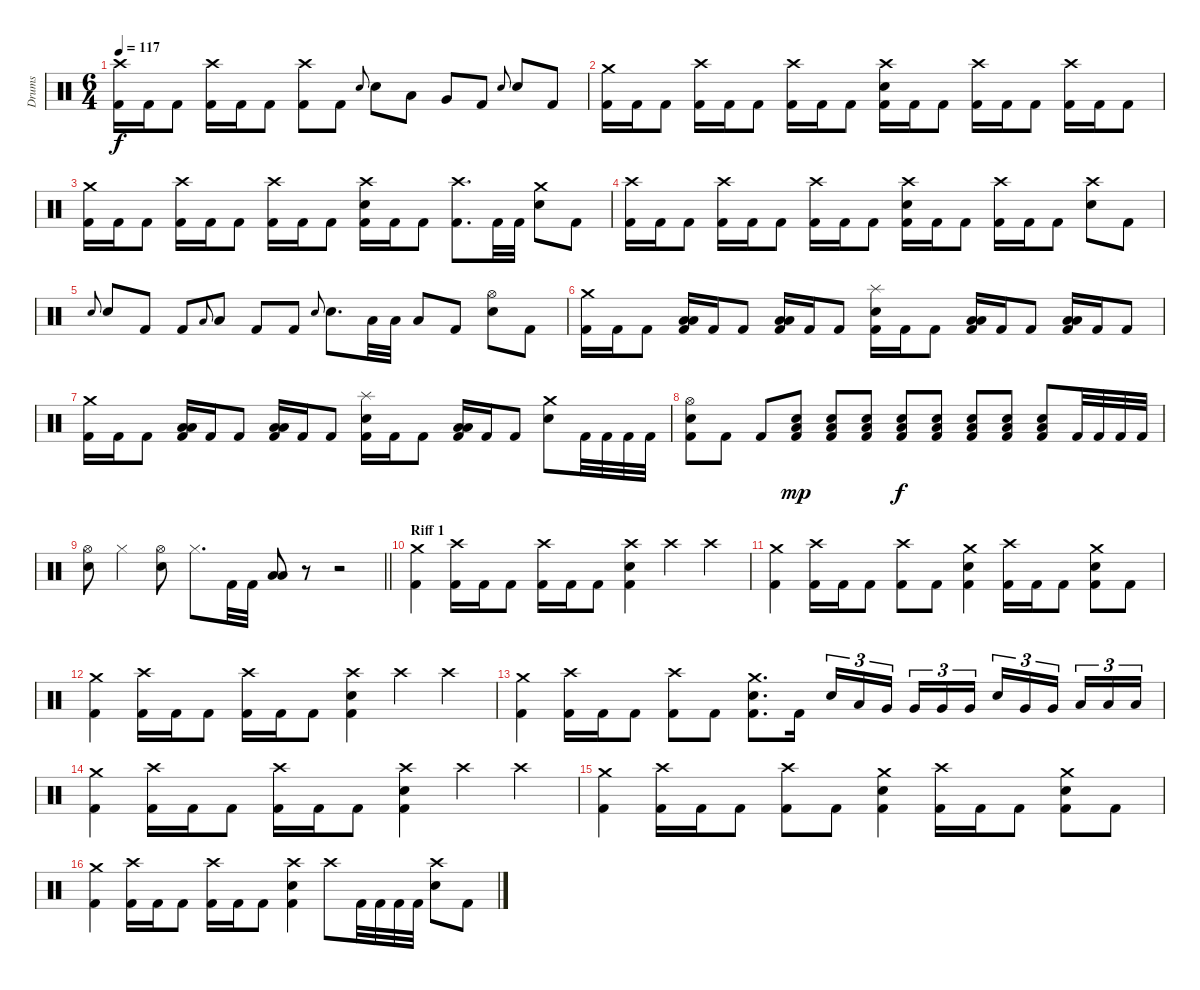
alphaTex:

\track ("Drums" "Drums") {instrument percussion}
\staff {score}
\articulation defaults
\ts (6 4)
\tempo 117
\clef neutral
\ks c
("Crash high (hit)" "Kick (hit) 2").16{dy f} "Kick (hit) 2".16 "Kick (hit) 2".8 ("Crash high (hit)" "Kick (hit) 2").16 "Kick (hit) 2".16 "Kick (hit) 2".8 ("Crash high (hit)" "Kick (hit) 2").8 "Kick (hit) 2".8 "Electric Snare (hit)".8{gr onbeat} "Electric Snare (hit)".8 "Low Tom (hit)".8 "Very Low Tom (hit)".8 "Kick (hit) 2".8 "Electric Snare (hit)".8{gr onbeat} "Electric Snare (hit)".8 "Kick (hit) 2".8 |
("Crash medium (hit)" "Kick (hit) 2").16 "Kick (hit) 2".16 "Kick (hit) 2".8 ("Crash high (hit)" "Kick (hit) 2").16 "Kick (hit) 2".16 "Kick (hit) 2".8 ("Crash high (hit)" "Kick (hit) 2").16 "Kick (hit) 2".16 "Kick (hit) 2".8 ("Electric Snare (hit)" "Kick (hit) 2" "Crash high (hit)").16 "Kick (hit) 2".16 "Kick (hit) 2".8 ("Crash high (hit)" "Kick (hit) 2").16 "Kick (hit) 2".16 "Kick (hit) 2".8 ("Crash high (hit)" "Kick (hit) 2").16 "Kick (hit) 2".16 "Kick (hit) 2".8 |
("Crash medium (hit)" "Kick (hit) 2").16 "Kick (hit) 2".16 "Kick (hit) 2".8 ("Crash high (hit)" "Kick (hit) 2").16 "Kick (hit) 2".16 "Kick (hit) 2".8 ("Crash high (hit)" "Kick (hit) 2").16 "Kick (hit) 2".16 "Kick (hit) 2".8 ("Electric Snare (hit)" "Kick (hit) 2" "Crash high (hit)").16 "Kick (hit) 2".16 "Kick (hit) 2".8 ("Crash high (hit)" "Kick (hit) 2").8{d} "Kick (hit) 2".32 "Kick (hit) 2".32 ("Electric Snare (hit)" "Crash medium (hit)").8 "Kick (hit) 2".8 |
("Kick (hit) 2" "Crash high (hit)").16 "Kick (hit) 2".16 "Kick (hit) 2".8 ("Crash high (hit)" "Kick (hit) 2").16 "Kick (hit) 2".16 "Kick (hit) 2".8 ("Crash high (hit)" "Kick (hit) 2").16 "Kick (hit) 2".16 "Kick (hit) 2".8 ("Electric Snare (hit)" "Kick (hit) 2" "Crash high (hit)").16 "Kick (hit) 2".16 "Kick (hit) 2".8 ("Crash high (hit)" "Kick (hit) 2").16 "Kick (hit) 2".16 "Kick (hit) 2".8 ("Electric Snare (hit)" "Crash high (hit)").8 "Kick (hit) 2".8 |
"Electric Snare (hit)".8{gr onbeat} "Electric Snare (hit)".8 "Kick (hit) 2".8 "Kick (hit) 2".8 "Low Tom (hit)".8{gr onbeat} "Low Tom (hit)".8 "Kick (hit) 2".8 "Kick (hit) 2".8 "Electric Snare (hit)".8{gr onbeat} "Electric Snare (hit)".8{d} "Low Floor Tom (hit)".32 "Low Floor Tom (hit)".32 "Low Floor Tom (hit)".8 "Kick (hit) 2".8 ("Electric Snare (hit)" "Hi-Hat (open)").8 "Kick (hit) 2".8 |
("Kick (hit) 2" "Crash medium (hit)").16 "Kick (hit) 2".16 "Kick (hit) 2".8 ("Kick (hit) 2" "Low Floor Tom (hit)" "Low Tom (hit)").16 "Kick (hit) 2".16 "Kick (hit) 2".8 ("Kick (hit) 2" "Low Tom (hit)" "Low Floor Tom (hit)").16 "Kick (hit) 2".16 "Kick (hit) 2".8 ("Kick (hit) 2" "Electric Snare (hit)" "Splash (hit)").16 "Kick (hit) 2".16 "Kick (hit) 2".8 ("Kick (hit) 2" "Low Floor Tom (hit)" "Low Tom (hit)").16 "Kick (hit) 2".16 "Kick (hit) 2".8 ("Kick (hit) 2" "Low Floor Tom (hit)" "Low Tom (hit)").16 "Kick (hit) 2".16 "Kick (hit) 2".8 |
("Kick (hit) 2" "Crash medium (hit)").16 "Kick (hit) 2".16 "Kick (hit) 2".8 ("Kick (hit) 2" "Low Floor Tom (hit)" "Low Tom (hit)").16 "Kick (hit) 2".16 "Kick (hit) 2".8 ("Kick (hit) 2" "Low Tom (hit)" "Low Floor Tom (hit)").16 "Kick (hit) 2".16 "Kick (hit) 2".8 ("Kick (hit) 2" "Electric Snare (hit)" "Splash (hit)").16 "Kick (hit) 2".16 "Kick (hit) 2".8 ("Kick (hit) 2" "Low Floor Tom (hit)" "Low Tom (hit)").16 "Kick (hit) 2".16 "Kick (hit) 2".8 ("Electric Snare (hit)" "Crash medium (hit)").8 "Kick (hit) 2".32 "Kick (hit) 2".32 "Kick (hit) 2".32 "Kick (hit) 2".32 |
("Electric Snare (hit)" "Hi-Hat (open)" "Kick (hit) 2").8 "Kick (hit) 2".8 "Kick (hit) 2".8 ("Kick (hit) 2" "Electric Snare (hit)" "Low Floor Tom (hit)").8{dy mp} ("Kick (hit) 2" "Electric Snare (hit)" "Low Floor Tom (hit)").8 ("Kick (hit) 2" "Electric Snare (hit)" "Low Floor Tom (hit)").8 ("Kick (hit) 2" "Electric Snare (hit)" "Low Floor Tom (hit)").8{dy f} ("Kick (hit) 2" "Electric Snare (hit)" "Low Floor Tom (hit)").8 ("Kick (hit) 2" "Electric Snare (hit)" "Low Floor Tom (hit)").8 ("Kick (hit) 2" "Electric Snare (hit)" "Low Floor Tom (hit)").8 ("Kick (hit) 2" "Electric Snare (hit)" "Low Floor Tom (hit)").8 "Kick (hit) 2".32 "Kick (hit) 2".32 "Kick (hit) 2".32 "Kick (hit) 2".32 |
\barLineRight lightlight
("Electric Snare (hit)" "Hi-Hat (open)").8 "Hi-Hat (closed)".4 ("Electric Snare (hit)" "Hi-Hat (open)").8 "Hi-Hat (closed)".8{d} "Kick (hit) 2".32 "Kick (hit) 2".32 ("Low Tom (hit)" "Low Floor Tom (hit)").8 r.8 r.2 |
\section ("" "Riff 1")
("Crash medium (hit)" "Kick (hit) 2").4 ("Crash high (hit)" "Kick (hit) 2").16 "Kick (hit) 2".16 "Kick (hit) 2".8 ("Crash high (hit)" "Kick (hit) 2").16 "Kick (hit) 2".16 "Kick (hit) 2".8 ("Electric Snare (hit)" "Crash high (hit)" "Kick (hit) 2").4 "Crash high (hit)".4 "Crash high (hit)".4 |
("Crash medium (hit)" "Kick (hit) 2").4 ("Crash high (hit)" "Kick (hit) 2").16 "Kick (hit) 2".16 "Kick (hit) 2".8 ("Kick (hit) 2" "Crash high (hit)").8 "Kick (hit) 2".8 ("Electric Snare (hit)" "Crash medium (hit)" "Kick (hit) 2").4 ("Crash high (hit)" "Kick (hit) 2").16 "Kick (hit) 2".16 "Kick (hit) 2".8 ("Electric Snare (hit)" "Kick (hit) 2" "Crash medium (hit)").8 "Kick (hit) 2".8 |
("Crash medium (hit)" "Kick (hit) 2").4 ("Crash high (hit)" "Kick (hit) 2").16 "Kick (hit) 2".16 "Kick (hit) 2".8 ("Crash high (hit)" "Kick (hit) 2").16 "Kick (hit) 2".16 "Kick (hit) 2".8 ("Electric Snare (hit)" "Crash high (hit)" "Kick (hit) 2").4 "Crash high (hit)".4 "Crash high (hit)".4 |
("Crash medium (hit)" "Kick (hit) 2").4 ("Crash high (hit)" "Kick (hit) 2").16 "Kick (hit) 2".16 "Kick (hit) 2".8 ("Kick (hit) 2" "Crash high (hit)").8 "Kick (hit) 2".8 ("Electric Snare (hit)" "Crash medium (hit)" "Kick (hit) 2").8{d} "Kick (hit) 2".16{beam splitsecondary} "Electric Snare (hit)".16{tu (3 2)} "Low Tom (hit)".16{tu (3 2)} "Very Low Tom (hit)".16{tu (3 2) beam splitsecondary} "Very Low Tom (hit)".16{tu (3 2)} "Very Low Tom (hit)".16{tu (3 2)} "Very Low Tom (hit)".16{tu (3 2) beam splitsecondary} "Electric Snare (hit)".16{tu (3 2)} "Very Low Tom (hit)".16{tu (3 2)} "Very Low Tom (hit)".16{tu (3 2) beam splitsecondary} "Low Floor Tom (hit)".16{tu (3 2)} "Low Floor Tom (hit)".16{tu (3 2)} "Low Floor Tom (hit)".16{tu (3 2)} |
("Crash medium (hit)" "Kick (hit) 2").4 ("Crash high (hit)" "Kick (hit) 2").16 "Kick (hit) 2".16 "Kick (hit) 2".8 ("Crash high (hit)" "Kick (hit) 2").16 "Kick (hit) 2".16 "Kick (hit) 2".8 ("Electric Snare (hit)" "Crash high (hit)" "Kick (hit) 2").4 "Crash high (hit)".4 "Crash high (hit)".4 |
("Crash medium (hit)" "Kick (hit) 2").4 ("Crash high (hit)" "Kick (hit) 2").16 "Kick (hit) 2".16 "Kick (hit) 2".8 ("Kick (hit) 2" "Crash high (hit)").8 "Kick (hit) 2".8 ("Electric Snare (hit)" "Crash medium (hit)" "Kick (hit) 2").4 ("Crash high (hit)" "Kick (hit) 2").16 "Kick (hit) 2".16 "Kick (hit) 2".8 ("Electric Snare (hit)" "Kick (hit) 2" "Crash medium (hit)").8 "Kick (hit) 2".8 |
("Crash medium (hit)" "Kick (hit) 2").4 ("Crash high (hit)" "Kick (hit) 2").16 "Kick (hit) 2".16 "Kick (hit) 2".8 ("Crash high (hit)" "Kick (hit) 2").16 "Kick (hit) 2".16 "Kick (hit) 2".8 ("Electric Snare (hit)" "Crash high (hit)" "Kick (hit) 2").4 "Crash high (hit)".8 "Kick (hit) 2".32 "Kick (hit) 2".32 "Kick (hit) 2".32 "Kick (hit) 2".32 ("Electric Snare (hit)" "Crash high (hit)").8 "Kick (hit) 2".8
